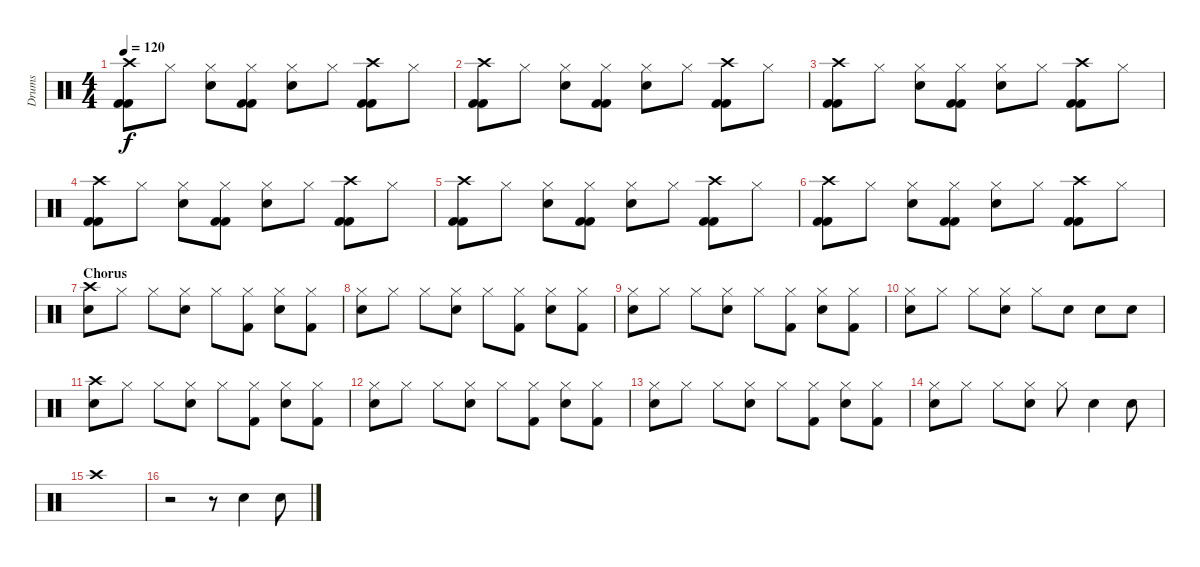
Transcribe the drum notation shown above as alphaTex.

\track ("Drums" "Drums") {instrument percussion}
\staff {score}
\articulation defaults
\ts (4 4)
\tempo 120
\clef neutral
\ks c
("Crash high (hit)" "Kick (hit) 2" "Kick (hit) 2").8{dy f} "Hi-Hat (closed)".8 ("Hi-Hat (closed)" "Snare (hit) 2").8 ("Hi-Hat (closed)" "Kick (hit) 2" "Kick (hit) 2").8 ("Hi-Hat (closed)" "Snare (hit) 2").8 "Hi-Hat (closed)".8 ("Crash high (hit)" "Kick (hit) 2" "Kick (hit) 2").8 "Hi-Hat (closed)".8 |
("Crash high (hit)" "Kick (hit) 2" "Kick (hit) 2").8 "Hi-Hat (closed)".8 ("Hi-Hat (closed)" "Snare (hit) 2").8 ("Hi-Hat (closed)" "Kick (hit) 2" "Kick (hit) 2").8 ("Hi-Hat (closed)" "Snare (hit) 2").8 "Hi-Hat (closed)".8 ("Crash high (hit)" "Kick (hit) 2" "Kick (hit) 2").8 "Hi-Hat (closed)".8 |
("Crash high (hit)" "Kick (hit) 2" "Kick (hit) 2").8 "Hi-Hat (closed)".8 ("Hi-Hat (closed)" "Snare (hit) 2").8 ("Hi-Hat (closed)" "Kick (hit) 2" "Kick (hit) 2").8 ("Hi-Hat (closed)" "Snare (hit) 2").8 "Hi-Hat (closed)".8 ("Crash high (hit)" "Kick (hit) 2" "Kick (hit) 2").8 "Hi-Hat (closed)".8 |
("Crash high (hit)" "Kick (hit) 2" "Kick (hit) 2").8 "Hi-Hat (closed)".8 ("Hi-Hat (closed)" "Snare (hit) 2").8 ("Hi-Hat (closed)" "Kick (hit) 2" "Kick (hit) 2").8 ("Hi-Hat (closed)" "Snare (hit) 2").8 "Hi-Hat (closed)".8 ("Crash high (hit)" "Kick (hit) 2" "Kick (hit) 2").8 "Hi-Hat (closed)".8 |
("Crash high (hit)" "Kick (hit) 2" "Kick (hit) 2").8 "Hi-Hat (closed)".8 ("Hi-Hat (closed)" "Snare (hit) 2").8 ("Hi-Hat (closed)" "Kick (hit) 2" "Kick (hit) 2").8 ("Hi-Hat (closed)" "Snare (hit) 2").8 "Hi-Hat (closed)".8 ("Crash high (hit)" "Kick (hit) 2" "Kick (hit) 2").8 "Hi-Hat (closed)".8 |
("Crash high (hit)" "Kick (hit) 2" "Kick (hit) 2").8 "Hi-Hat (closed)".8 ("Hi-Hat (closed)" "Snare (hit) 2").8 ("Hi-Hat (closed)" "Kick (hit) 2" "Kick (hit) 2").8 ("Hi-Hat (closed)" "Snare (hit) 2").8 "Hi-Hat (closed)".8 ("Crash high (hit)" "Kick (hit) 2" "Kick (hit) 2").8 "Hi-Hat (closed)".8 |
\section ("" "Chorus")
("Crash high (hit)" "Snare (hit) 2").8 "Hi-Hat (closed)".8 "Hi-Hat (closed)".8 ("Hi-Hat (closed)" "Snare (hit) 2").8 "Hi-Hat (closed)".8 ("Hi-Hat (closed)" "Kick (hit) 2").8 ("Hi-Hat (closed)" "Snare (hit) 2").8 ("Hi-Hat (closed)" "Kick (hit) 2").8 |
("Hi-Hat (closed)" "Snare (hit) 2").8 "Hi-Hat (closed)".8 "Hi-Hat (closed)".8 ("Hi-Hat (closed)" "Snare (hit) 2").8 "Hi-Hat (closed)".8 ("Hi-Hat (closed)" "Kick (hit) 2").8 ("Hi-Hat (closed)" "Snare (hit) 2").8 ("Hi-Hat (closed)" "Kick (hit) 2").8 |
("Hi-Hat (closed)" "Snare (hit) 2").8 "Hi-Hat (closed)".8 "Hi-Hat (closed)".8 ("Hi-Hat (closed)" "Snare (hit) 2").8 "Hi-Hat (closed)".8 ("Hi-Hat (closed)" "Kick (hit) 2").8 ("Hi-Hat (closed)" "Snare (hit) 2").8 ("Hi-Hat (closed)" "Kick (hit) 2").8 |
("Hi-Hat (closed)" "Snare (hit) 2").8 "Hi-Hat (closed)".8 "Hi-Hat (closed)".8 ("Hi-Hat (closed)" "Snare (hit) 2").8 "Hi-Hat (closed)".8 "Snare (hit) 2".8 "Snare (hit) 2".8 "Snare (hit) 2".8 |
("Crash high (hit)" "Snare (hit) 2").8 "Hi-Hat (closed)".8 "Hi-Hat (closed)".8 ("Hi-Hat (closed)" "Snare (hit) 2").8 "Hi-Hat (closed)".8 ("Hi-Hat (closed)" "Kick (hit) 2").8 ("Hi-Hat (closed)" "Snare (hit) 2").8 ("Hi-Hat (closed)" "Kick (hit) 2").8 |
("Hi-Hat (closed)" "Snare (hit) 2").8 "Hi-Hat (closed)".8 "Hi-Hat (closed)".8 ("Hi-Hat (closed)" "Snare (hit) 2").8 "Hi-Hat (closed)".8 ("Hi-Hat (closed)" "Kick (hit) 2").8 ("Hi-Hat (closed)" "Snare (hit) 2").8 ("Hi-Hat (closed)" "Kick (hit) 2").8 |
("Hi-Hat (closed)" "Snare (hit) 2").8 "Hi-Hat (closed)".8 "Hi-Hat (closed)".8 ("Hi-Hat (closed)" "Snare (hit) 2").8 "Hi-Hat (closed)".8 ("Hi-Hat (closed)" "Kick (hit) 2").8 ("Hi-Hat (closed)" "Snare (hit) 2").8 ("Hi-Hat (closed)" "Kick (hit) 2").8 |
("Hi-Hat (closed)" "Snare (hit) 2").8 "Hi-Hat (closed)".8 "Hi-Hat (closed)".8 ("Hi-Hat (closed)" "Snare (hit) 2").8 "Hi-Hat (closed)".8 "Snare (hit) 2".4 "Snare (hit) 2".8 |
"Crash high (hit)".1 |
r.2 r.8 "Snare (hit) 2".4 "Snare (hit) 2".8
